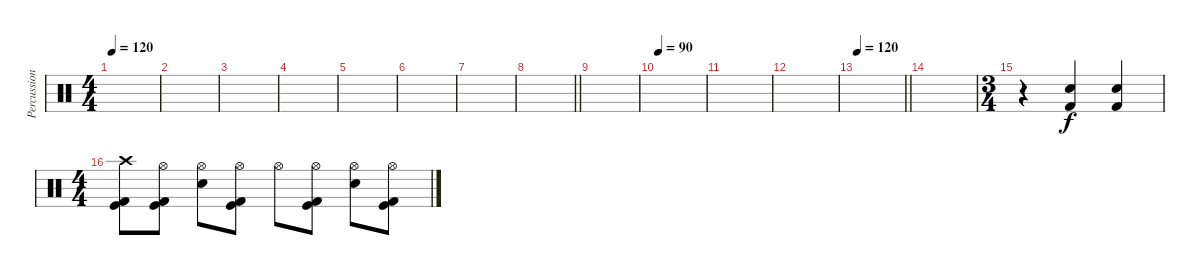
\track ("Percussion" "Percussion") {instrument percussion}
\staff {score}
\articulation defaults
\ts (4 4)
\section ("" "")
\tempo 120
\clef neutral
\ks c
|
|
|
|
|
|
|
\barLineRight lightlight
|
\section ("" "")
|
\tempo 90
|
|
|
\tempo 120
\barLineRight lightlight
|
\section ("" "")
|
\ts (3 4)
r.4 ("Electric Snare (hit)" "Kick (hit) 2").4 ("Electric Snare (hit)" "Kick (hit) 2").4 |
\ts (4 4)
("Crash high (hit)" "Kick (hit)" "Kick (hit) 2").8 ("Hi-Hat (open)" "Kick (hit)" "Kick (hit) 2").8 ("Hi-Hat (open)" "Electric Snare (hit)").8 ("Hi-Hat (open)" "Kick (hit)" "Kick (hit) 2").8 "Hi-Hat (open)".8 ("Hi-Hat (open)" "Kick (hit)" "Kick (hit) 2").8 ("Hi-Hat (open)" "Electric Snare (hit)").8 ("Hi-Hat (open)" "Kick (hit)" "Kick (hit) 2").8
